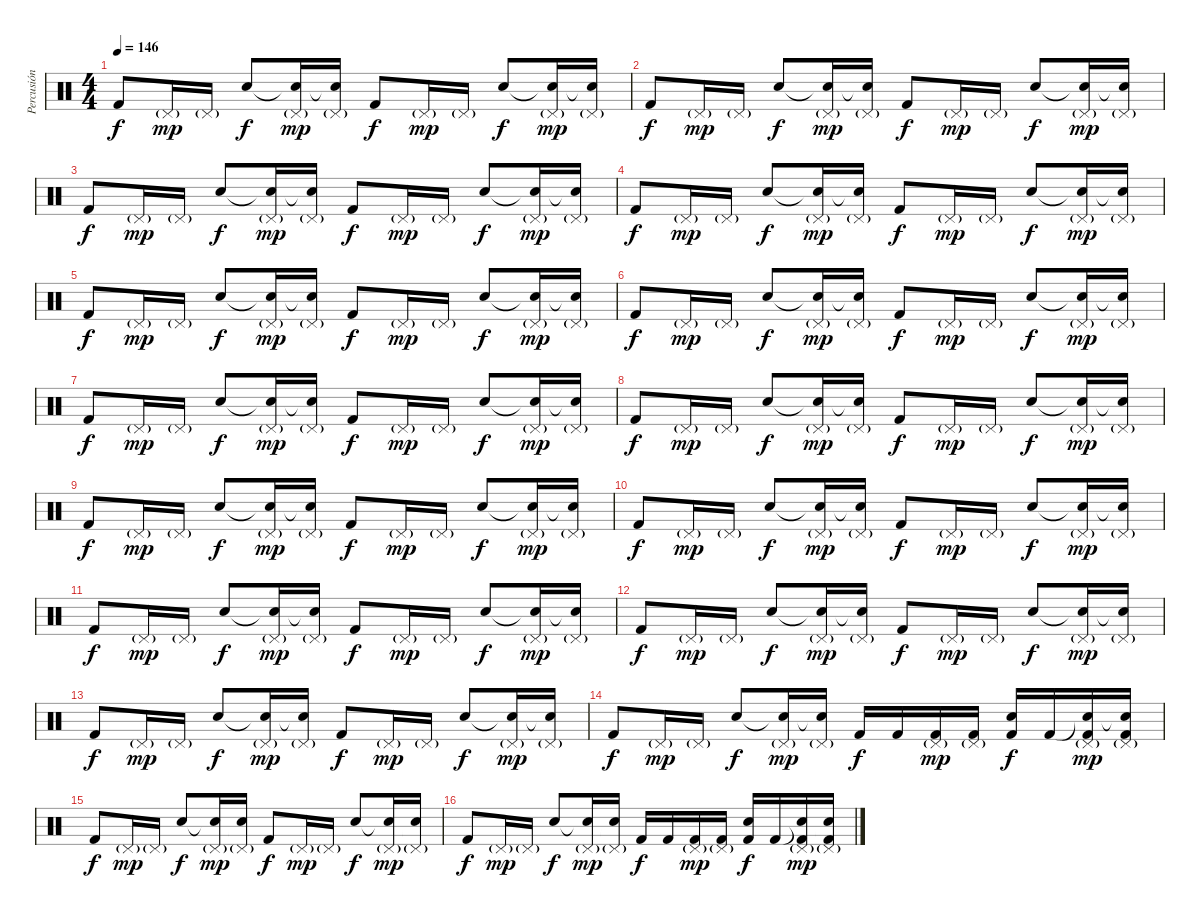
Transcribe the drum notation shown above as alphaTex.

\track ("Percusión" "Percusión") {instrument percussion}
\staff {score}
\articulation defaults
\ts (4 4)
\tempo 146
\clef neutral
\ks c "Kick (hit) 2".8{dy f} "Pedal Hi-Hat (hit)"{g}.16{dy mp} "Pedal Hi-Hat (hit)"{g}.16 "Snare (hit) 2".8{dy f}
("Snare (hit)"{t} "Pedal Hi-Hat (hit)"{g}).16{dy mp} ("Snare (hit)"{t} "Pedal Hi-Hat (hit)"{g}).16 "Kick (hit) 2".8{dy f} "Pedal Hi-Hat (hit)"{g}.16{dy mp} "Pedal Hi-Hat (hit)"{g}.16 "Snare (hit) 2".8{dy f} ("Snare (hit)"{t} "Pedal Hi-Hat (hit)"{g}).16{dy mp} ("Snare (hit)"{t} "Pedal Hi-Hat (hit)"{g}).16 |
"Kick (hit) 2".8{dy f} "Pedal Hi-Hat (hit)"{g}.16{dy mp} "Pedal Hi-Hat (hit)"{g}.16 "Snare (hit) 2".8{dy f} ("Snare (hit)"{t} "Pedal Hi-Hat (hit)"{g}).16{dy mp} ("Snare (hit)"{t} "Pedal Hi-Hat (hit)"{g}).16 "Kick (hit) 2".8{dy f} "Pedal Hi-Hat (hit)"{g}.16{dy mp} "Pedal Hi-Hat (hit)"{g}.16 "Snare (hit) 2".8{dy f} ("Snare (hit)"{t} "Pedal Hi-Hat (hit)"{g}).16{dy mp} ("Snare (hit)"{t} "Pedal Hi-Hat (hit)"{g}).16 |
"Kick (hit) 2".8{dy f} "Pedal Hi-Hat (hit)"{g}.16{dy mp} "Pedal Hi-Hat (hit)"{g}.16 "Snare (hit) 2".8{dy f} ("Snare (hit)"{t} "Pedal Hi-Hat (hit)"{g}).16{dy mp} ("Snare (hit)"{t} "Pedal Hi-Hat (hit)"{g}).16 "Kick (hit) 2".8{dy f} "Pedal Hi-Hat (hit)"{g}.16{dy mp} "Pedal Hi-Hat (hit)"{g}.16 "Snare (hit) 2".8{dy f} ("Snare (hit)"{t} "Pedal Hi-Hat (hit)"{g}).16{dy mp} ("Snare (hit)"{t} "Pedal Hi-Hat (hit)"{g}).16 |
"Kick (hit) 2".8{dy f} "Pedal Hi-Hat (hit)"{g}.16{dy mp} "Pedal Hi-Hat (hit)"{g}.16 "Snare (hit) 2".8{dy f} ("Snare (hit)"{t} "Pedal Hi-Hat (hit)"{g}).16{dy mp} ("Snare (hit)"{t} "Pedal Hi-Hat (hit)"{g}).16 "Kick (hit) 2".8{dy f} "Pedal Hi-Hat (hit)"{g}.16{dy mp} "Pedal Hi-Hat (hit)"{g}.16 "Snare (hit) 2".8{dy f} ("Snare (hit)"{t} "Pedal Hi-Hat (hit)"{g}).16{dy mp} ("Snare (hit)"{t} "Pedal Hi-Hat (hit)"{g}).16 |
"Kick (hit) 2".8{dy f} "Pedal Hi-Hat (hit)"{g}.16{dy mp} "Pedal Hi-Hat (hit)"{g}.16 "Snare (hit) 2".8{dy f} ("Snare (hit)"{t} "Pedal Hi-Hat (hit)"{g}).16{dy mp} ("Snare (hit)"{t} "Pedal Hi-Hat (hit)"{g}).16 "Kick (hit) 2".8{dy f} "Pedal Hi-Hat (hit)"{g}.16{dy mp} "Pedal Hi-Hat (hit)"{g}.16 "Snare (hit) 2".8{dy f} ("Snare (hit)"{t} "Pedal Hi-Hat (hit)"{g}).16{dy mp} ("Snare (hit)"{t} "Pedal Hi-Hat (hit)"{g}).16 |
"Kick (hit) 2".8{dy f} "Pedal Hi-Hat (hit)"{g}.16{dy mp} "Pedal Hi-Hat (hit)"{g}.16 "Snare (hit) 2".8{dy f} ("Snare (hit)"{t} "Pedal Hi-Hat (hit)"{g}).16{dy mp} ("Snare (hit)"{t} "Pedal Hi-Hat (hit)"{g}).16 "Kick (hit) 2".8{dy f} "Pedal Hi-Hat (hit)"{g}.16{dy mp} "Pedal Hi-Hat (hit)"{g}.16 "Snare (hit) 2".8{dy f} ("Snare (hit)"{t} "Pedal Hi-Hat (hit)"{g}).16{dy mp} ("Snare (hit)"{t} "Pedal Hi-Hat (hit)"{g}).16 |
"Kick (hit) 2".8{dy f} "Pedal Hi-Hat (hit)"{g}.16{dy mp} "Pedal Hi-Hat (hit)"{g}.16 "Snare (hit) 2".8{dy f} ("Snare (hit)"{t} "Pedal Hi-Hat (hit)"{g}).16{dy mp} ("Snare (hit)"{t} "Pedal Hi-Hat (hit)"{g}).16 "Kick (hit) 2".8{dy f} "Pedal Hi-Hat (hit)"{g}.16{dy mp} "Pedal Hi-Hat (hit)"{g}.16 "Snare (hit) 2".8{dy f} ("Snare (hit)"{t} "Pedal Hi-Hat (hit)"{g}).16{dy mp} ("Snare (hit)"{t} "Pedal Hi-Hat (hit)"{g}).16 |
"Kick (hit) 2".8{dy f} "Pedal Hi-Hat (hit)"{g}.16{dy mp} "Pedal Hi-Hat (hit)"{g}.16 "Snare (hit) 2".8{dy f} ("Snare (hit)"{t} "Pedal Hi-Hat (hit)"{g}).16{dy mp} ("Snare (hit)"{t} "Pedal Hi-Hat (hit)"{g}).16 "Kick (hit) 2".8{dy f} "Pedal Hi-Hat (hit)"{g}.16{dy mp} "Pedal Hi-Hat (hit)"{g}.16 "Snare (hit) 2".8{dy f} ("Snare (hit)"{t} "Pedal Hi-Hat (hit)"{g}).16{dy mp} ("Snare (hit)"{t} "Pedal Hi-Hat (hit)"{g}).16 |
"Kick (hit) 2".8{dy f} "Pedal Hi-Hat (hit)"{g}.16{dy mp} "Pedal Hi-Hat (hit)"{g}.16 "Snare (hit) 2".8{dy f} ("Snare (hit)"{t} "Pedal Hi-Hat (hit)"{g}).16{dy mp} ("Snare (hit)"{t} "Pedal Hi-Hat (hit)"{g}).16 "Kick (hit) 2".8{dy f} "Pedal Hi-Hat (hit)"{g}.16{dy mp} "Pedal Hi-Hat (hit)"{g}.16 "Snare (hit) 2".8{dy f} ("Snare (hit)"{t} "Pedal Hi-Hat (hit)"{g}).16{dy mp} ("Snare (hit)"{t} "Pedal Hi-Hat (hit)"{g}).16 |
"Kick (hit) 2".8{dy f} "Pedal Hi-Hat (hit)"{g}.16{dy mp} "Pedal Hi-Hat (hit)"{g}.16 "Snare (hit) 2".8{dy f} ("Snare (hit)"{t} "Pedal Hi-Hat (hit)"{g}).16{dy mp} ("Snare (hit)"{t} "Pedal Hi-Hat (hit)"{g}).16 "Kick (hit) 2".8{dy f} "Pedal Hi-Hat (hit)"{g}.16{dy mp} "Pedal Hi-Hat (hit)"{g}.16 "Snare (hit) 2".8{dy f} ("Snare (hit)"{t} "Pedal Hi-Hat (hit)"{g}).16{dy mp} ("Snare (hit)"{t} "Pedal Hi-Hat (hit)"{g}).16 |
"Kick (hit) 2".8{dy f} "Pedal Hi-Hat (hit)"{g}.16{dy mp} "Pedal Hi-Hat (hit)"{g}.16 "Snare (hit) 2".8{dy f} ("Snare (hit)"{t} "Pedal Hi-Hat (hit)"{g}).16{dy mp} ("Snare (hit)"{t} "Pedal Hi-Hat (hit)"{g}).16 "Kick (hit) 2".8{dy f} "Pedal Hi-Hat (hit)"{g}.16{dy mp} "Pedal Hi-Hat (hit)"{g}.16 "Snare (hit) 2".8{dy f} ("Snare (hit)"{t} "Pedal Hi-Hat (hit)"{g}).16{dy mp} ("Snare (hit)"{t} "Pedal Hi-Hat (hit)"{g}).16 |
"Kick (hit) 2".8{dy f} "Pedal Hi-Hat (hit)"{g}.16{dy mp} "Pedal Hi-Hat (hit)"{g}.16 "Snare (hit) 2".8{dy f} ("Snare (hit)"{t} "Pedal Hi-Hat (hit)"{g}).16{dy mp} ("Snare (hit)"{t} "Pedal Hi-Hat (hit)"{g}).16 "Kick (hit) 2".8{dy f} "Pedal Hi-Hat (hit)"{g}.16{dy mp} "Pedal Hi-Hat (hit)"{g}.16 "Snare (hit) 2".8{dy f} ("Snare (hit)"{t} "Pedal Hi-Hat (hit)"{g}).16{dy mp} ("Snare (hit)"{t} "Pedal Hi-Hat (hit)"{g}).16 |
"Kick (hit) 2".8{dy f} "Pedal Hi-Hat (hit)"{g}.16{dy mp} "Pedal Hi-Hat (hit)"{g}.16 "Snare (hit) 2".8{dy f} ("Snare (hit)"{t} "Pedal Hi-Hat (hit)"{g}).16{dy mp} ("Snare (hit)"{t} "Pedal Hi-Hat (hit)"{g}).16 "Kick (hit) 2".8{dy f} "Pedal Hi-Hat (hit)"{g}.16{dy mp} "Pedal Hi-Hat (hit)"{g}.16 "Snare (hit) 2".8{dy f} ("Snare (hit)"{t} "Pedal Hi-Hat (hit)"{g}).16{dy mp} ("Snare (hit)"{t} "Pedal Hi-Hat (hit)"{g}).16 |
"Kick (hit) 2".8{dy f} "Pedal Hi-Hat (hit)"{g}.16{dy mp} "Pedal Hi-Hat (hit)"{g}.16 "Snare (hit) 2".8{dy f} ("Snare (hit)"{t} "Pedal Hi-Hat (hit)"{g}).16{dy mp} ("Snare (hit)"{t} "Pedal Hi-Hat (hit)"{g}).16 "Kick (hit) 2".16{dy f} "Kick (hit) 2".16 ("Pedal Hi-Hat (hit)"{g} "Kick (hit) 2").16{dy mp} ("Pedal Hi-Hat (hit)"{g} "Kick (hit) 2").16 ("Snare (hit) 2" "Kick (hit) 2").16{dy f} "Kick (hit) 2".16 ("Snare (hit)"{t} "Pedal Hi-Hat (hit)"{g} "Kick (hit) 2").16{dy mp} ("Snare (hit)"{t} "Pedal Hi-Hat (hit)"{g} "Kick (hit) 2").16 |
"Kick (hit) 2".8{dy f} "Pedal Hi-Hat (hit)"{g}.16{dy mp} "Pedal Hi-Hat (hit)"{g}.16 "Snare (hit) 2".8{dy f} ("Snare (hit)"{t} "Pedal Hi-Hat (hit)"{g}).16{dy mp} ("Snare (hit)"{t} "Pedal Hi-Hat (hit)"{g}).16 "Kick (hit) 2".8{dy f} "Pedal Hi-Hat (hit)"{g}.16{dy mp} "Pedal Hi-Hat (hit)"{g}.16 "Snare (hit) 2".8{dy f} ("Snare (hit)"{t} "Pedal Hi-Hat (hit)"{g}).16{dy mp} ("Snare (hit)"{t} "Pedal Hi-Hat (hit)"{g}).16 |
"Kick (hit) 2".8{dy f} "Pedal Hi-Hat (hit)"{g}.16{dy mp} "Pedal Hi-Hat (hit)"{g}.16 "Snare (hit) 2".8{dy f} ("Snare (hit)"{t} "Pedal Hi-Hat (hit)"{g}).16{dy mp} ("Snare (hit)"{t} "Pedal Hi-Hat (hit)"{g}).16 "Kick (hit) 2".16{dy f} "Kick (hit) 2".16 ("Pedal Hi-Hat (hit)"{g} "Kick (hit) 2").16{dy mp} ("Pedal Hi-Hat (hit)"{g} "Kick (hit) 2").16 ("Snare (hit) 2" "Kick (hit) 2").16{dy f} "Kick (hit) 2".16 ("Snare (hit)"{t} "Pedal Hi-Hat (hit)"{g} "Kick (hit) 2").16{dy mp} ("Snare (hit)"{t} "Pedal Hi-Hat (hit)"{g} "Kick (hit) 2").16
